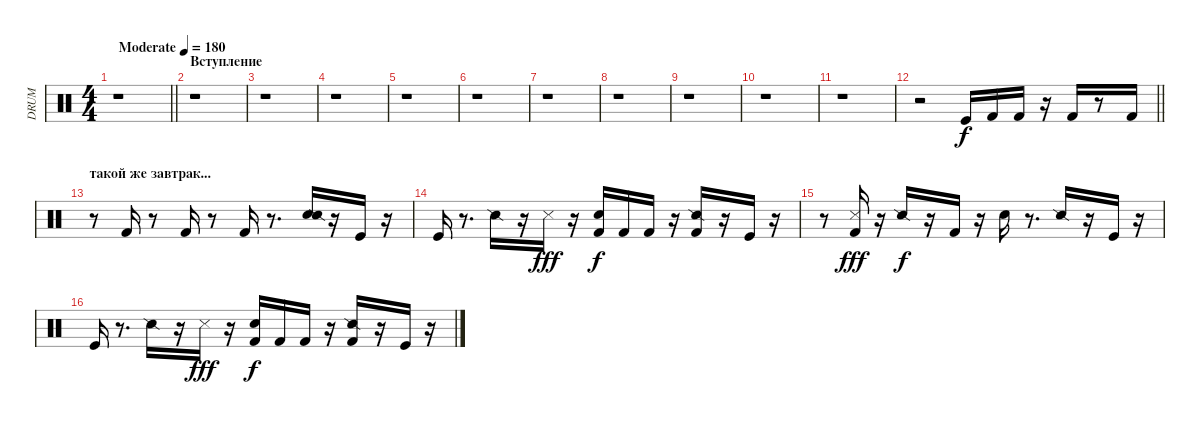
\track ("DRUM" "DRUM") {instrument percussion}
\staff {score}
\articulation defaults
\ts (4 4)
\tempo (180 "Moderate")
\clef neutral
\barLineRight lightlight
\ks c
r.1{dy f} |
\section ("" "Вступление")
r.1 |
r.1 |
r.1 |
r.1 |
r.1 |
r.1 |
r.1 |
r.1 |
r.1 |
r.1 |
\barLineRight lightlight
r.2 "Kick (hit)".16 "Kick (hit) 2".16 "Kick (hit) 2".16 r.16 "Kick (hit) 2".16 r.8 "Kick (hit) 2".16 |
\section ("" "такой же завтрак...")
r.8 "Kick (hit) 2".16 r.8 "Kick (hit) 2".16 r.8 "Kick (hit) 2".16 r.8{d} ("Snare (hit) 2" "Snare (side stick) 2").16 r.16 "Kick (hit)".16 r.16 |
"Kick (hit)".16 r.8{d} "Snare (side stick) 2".16 r.16 "Snare (side stick) 3".16{dy fff} r.16 ("Kick (hit) 2" "Snare (hit) 2").16{dy f} "Kick (hit) 2".16 "Kick (hit) 2".16 r.16 ("Snare (side stick) 2" "Kick (hit) 2").16 r.16 "Kick (hit)".16 r.16 |
r.8 ("Snare (side stick) 3" "Kick (hit) 2").16{dy fff} r.16 "Snare (side stick) 2".16{dy f} r.16 "Kick (hit) 2".16 r.16 "Snare (hit) 2".16 r.8{d} "Snare (side stick) 2".16 r.16 "Kick (hit)".16 r.16 |
"Kick (hit)".16 r.8{d} "Snare (side stick) 2".16 r.16 "Snare (side stick) 3".16{dy fff} r.16 ("Kick (hit) 2" "Snare (hit) 2").16{dy f} "Kick (hit) 2".16 "Kick (hit) 2".16 r.16 ("Snare (side stick) 2" "Kick (hit) 2").16 r.16 "Kick (hit)".16 r.16
